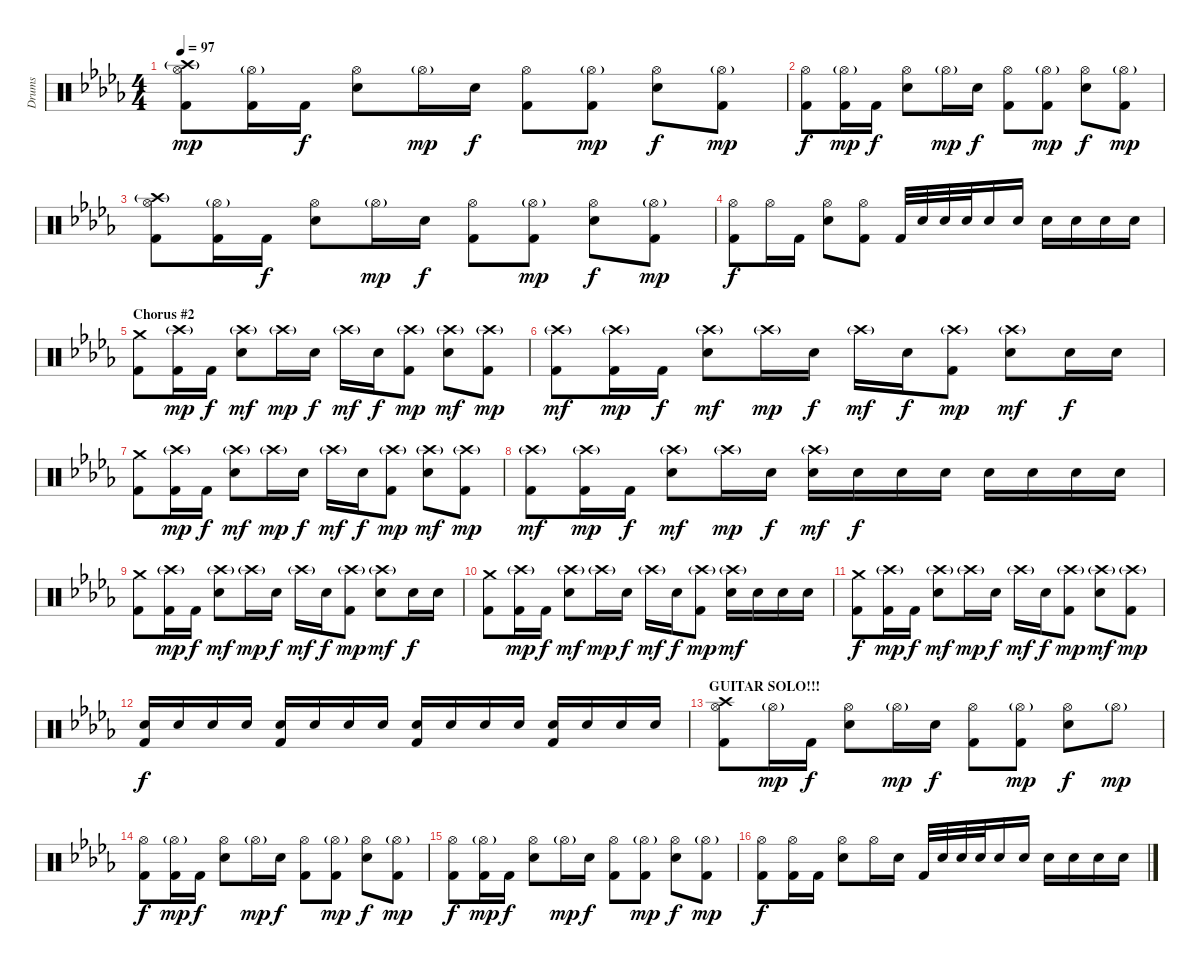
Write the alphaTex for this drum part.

\track ("Drums" "Drums") {instrument percussion}
\staff {score}
\articulation defaults
\ts (4 4)
\tempo 97
\clef neutral
\ks db
("Hi-Hat (open)" "Crash high (hit)"{g} "Kick (hit) 2").8{dy mp} ("Hi-Hat (open)"{g} "Kick (hit) 2").16 "Kick (hit) 2".16{dy f} ("Hi-Hat (open)" "Electric Snare (hit)").8 "Hi-Hat (open)"{g}.16{dy mp} "Electric Snare (hit)".16{dy f} ("Hi-Hat (open)" "Kick (hit) 2").8 ("Hi-Hat (open)"{g} "Kick (hit) 2").8{dy mp} ("Hi-Hat (open)" "Electric Snare (hit)").8{dy f} ("Hi-Hat (open)"{g} "Kick (hit) 2").8{dy mp} |
("Hi-Hat (open)" "Kick (hit) 2").8{dy f} ("Hi-Hat (open)"{g} "Kick (hit) 2").16{dy mp} "Kick (hit) 2".16{dy f} ("Hi-Hat (open)" "Electric Snare (hit)").8 "Hi-Hat (open)"{g}.16{dy mp} "Electric Snare (hit)".16{dy f} ("Hi-Hat (open)" "Kick (hit) 2").8 ("Hi-Hat (open)"{g} "Kick (hit) 2").8{dy mp} ("Hi-Hat (open)" "Electric Snare (hit)").8{dy f} ("Hi-Hat (open)"{g} "Kick (hit) 2").8{dy mp} |
("Hi-Hat (open)" "Crash high (hit)"{g} "Kick (hit) 2").8 ("Hi-Hat (open)"{g} "Kick (hit) 2").16 "Kick (hit) 2".16{dy f} ("Hi-Hat (open)" "Electric Snare (hit)").8 "Hi-Hat (open)"{g}.16{dy mp} "Electric Snare (hit)".16{dy f} ("Hi-Hat (open)" "Kick (hit) 2").8 ("Hi-Hat (open)"{g} "Kick (hit) 2").8{dy mp} ("Hi-Hat (open)" "Electric Snare (hit)").8{dy f} ("Hi-Hat (open)"{g} "Kick (hit) 2").8{dy mp} |
("Hi-Hat (open)" "Kick (hit) 2").8{dy f} "Hi-Hat (open)".16 "Kick (hit) 2".16 ("Hi-Hat (open)" "Electric Snare (hit)").8 ("Hi-Hat (open)" "Kick (hit) 2").8 "Kick (hit) 2".32 "Electric Snare (hit)".32 "Electric Snare (hit)".32 "Electric Snare (hit)".32 "Electric Snare (hit)".16 "Electric Snare (hit)".16 "Electric Snare (hit)".16 "Electric Snare (hit)".16 "Electric Snare (hit)".16 "Electric Snare (hit)".16 |
\section ("" "Chorus #2")
("Crash medium (hit)" "Kick (hit) 2").8 ("Crash high (hit)"{g} "Kick (hit) 2").16{dy mp} "Kick (hit) 2".16{dy f} ("Crash high (hit)"{g} "Electric Snare (hit)").8{dy mf} "Crash high (hit)"{g}.16{dy mp} "Electric Snare (hit)".16{dy f} "Crash high (hit)"{g}.16{dy mf} "Electric Snare (hit)".16{dy f} ("Crash high (hit)"{g} "Kick (hit) 2").8{dy mp} ("Crash high (hit)"{g} "Electric Snare (hit)").8{dy mf} ("Crash high (hit)"{g} "Kick (hit) 2").8{dy mp} |
("Crash high (hit)"{g} "Kick (hit) 2").8{dy mf} ("Crash high (hit)"{g} "Kick (hit) 2").16{dy mp} "Kick (hit) 2".16{dy f} ("Crash high (hit)"{g} "Electric Snare (hit)").8{dy mf} "Crash high (hit)"{g}.16{dy mp} "Electric Snare (hit)".16{dy f} "Crash high (hit)"{g}.16{dy mf} "Electric Snare (hit)".16{dy f} ("Crash high (hit)"{g} "Kick (hit) 2").8{dy mp} ("Crash high (hit)"{g} "Electric Snare (hit)").8{dy mf} "Electric Snare (hit)".16{dy f} "Electric Snare (hit)".16 |
("Crash medium (hit)" "Kick (hit) 2").8 ("Crash high (hit)"{g} "Kick (hit) 2").16{dy mp} "Kick (hit) 2".16{dy f} ("Crash high (hit)"{g} "Electric Snare (hit)").8{dy mf} "Crash high (hit)"{g}.16{dy mp} "Electric Snare (hit)".16{dy f} "Crash high (hit)"{g}.16{dy mf} "Electric Snare (hit)".16{dy f} ("Crash high (hit)"{g} "Kick (hit) 2").8{dy mp} ("Crash high (hit)"{g} "Electric Snare (hit)").8{dy mf} ("Crash high (hit)"{g} "Kick (hit) 2").8{dy mp} |
("Crash high (hit)"{g} "Kick (hit) 2").8{dy mf} ("Crash high (hit)"{g} "Kick (hit) 2").16{dy mp} "Kick (hit) 2".16{dy f} ("Crash high (hit)"{g} "Electric Snare (hit)").8{dy mf} "Crash high (hit)"{g}.16{dy mp} "Electric Snare (hit)".16{dy f} ("Crash high (hit)"{g} "Electric Snare (hit)").16{dy mf} "Electric Snare (hit)".16{dy f} "Electric Snare (hit)".16 "Electric Snare (hit)".16 "Electric Snare (hit)".16 "Electric Snare (hit)".16 "Electric Snare (hit)".16 "Electric Snare (hit)".16 |
("Crash medium (hit)" "Kick (hit) 2").8 ("Crash high (hit)"{g} "Kick (hit) 2").16{dy mp} "Kick (hit) 2".16{dy f} ("Crash high (hit)"{g} "Electric Snare (hit)").8{dy mf} "Crash high (hit)"{g}.16{dy mp} "Electric Snare (hit)".16{dy f} "Crash high (hit)"{g}.16{dy mf} "Electric Snare (hit)".16{dy f} ("Crash high (hit)"{g} "Kick (hit) 2").8{dy mp} ("Crash high (hit)"{g} "Electric Snare (hit)").8{dy mf} "Electric Snare (hit)".16{dy f} "Electric Snare (hit)".16 |
("Crash medium (hit)" "Kick (hit) 2").8 ("Crash high (hit)"{g} "Kick (hit) 2").16{dy mp} "Kick (hit) 2".16{dy f} ("Crash high (hit)"{g} "Electric Snare (hit)").8{dy mf} "Crash high (hit)"{g}.16{dy mp} "Electric Snare (hit)".16{dy f} "Crash high (hit)"{g}.16{dy mf} "Electric Snare (hit)".16{dy f} ("Crash high (hit)"{g} "Kick (hit) 2").8{dy mp} ("Crash high (hit)"{g} "Electric Snare (hit)").16{dy mf} "Electric Snare (hit)".16 "Electric Snare (hit)".16 "Electric Snare (hit)".16 |
("Crash medium (hit)" "Kick (hit) 2").8{dy f} ("Crash high (hit)"{g} "Kick (hit) 2").16{dy mp} "Kick (hit) 2".16{dy f} ("Crash high (hit)"{g} "Electric Snare (hit)").8{dy mf} "Crash high (hit)"{g}.16{dy mp} "Electric Snare (hit)".16{dy f} "Crash high (hit)"{g}.16{dy mf} "Electric Snare (hit)".16{dy f} ("Crash high (hit)"{g} "Kick (hit) 2").8{dy mp} ("Crash high (hit)"{g} "Electric Snare (hit)").8{dy mf} ("Crash high (hit)"{g} "Kick (hit) 2").8{dy mp} |
("Electric Snare (hit)" "Kick (hit) 2").16{dy f} "Electric Snare (hit)".16 "Electric Snare (hit)".16 "Electric Snare (hit)".16 ("Electric Snare (hit)" "Kick (hit) 2").16 "Electric Snare (hit)".16 "Electric Snare (hit)".16 "Electric Snare (hit)".16 ("Electric Snare (hit)" "Kick (hit) 2").16 "Electric Snare (hit)".16 "Electric Snare (hit)".16 "Electric Snare (hit)".16 ("Electric Snare (hit)" "Kick (hit) 2").16 "Electric Snare (hit)".16 "Electric Snare (hit)".16 "Electric Snare (hit)".16 |
\section ("" "GUITAR SOLO!!!")
("Hi-Hat (open)" "Crash high (hit)" "Kick (hit) 2").8 "Hi-Hat (open)"{g}.16{dy mp} "Kick (hit) 2".16{dy f} ("Hi-Hat (open)" "Electric Snare (hit)").8 "Hi-Hat (open)"{g}.16{dy mp} "Electric Snare (hit)".16{dy f} ("Hi-Hat (open)" "Kick (hit) 2").8 ("Hi-Hat (open)"{g} "Kick (hit) 2").8{dy mp} ("Hi-Hat (open)" "Electric Snare (hit)").8{dy f} "Hi-Hat (open)"{g}.8{dy mp} |
("Hi-Hat (open)" "Kick (hit) 2").8{dy f} ("Hi-Hat (open)"{g} "Kick (hit) 2").16{dy mp} "Kick (hit) 2".16{dy f} ("Hi-Hat (open)" "Electric Snare (hit)").8 "Hi-Hat (open)"{g}.16{dy mp} "Electric Snare (hit)".16{dy f} ("Hi-Hat (open)" "Kick (hit) 2").8 ("Hi-Hat (open)"{g} "Kick (hit) 2").8{dy mp} ("Hi-Hat (open)" "Electric Snare (hit)").8{dy f} ("Hi-Hat (open)"{g} "Kick (hit) 2").8{dy mp} |
("Hi-Hat (open)" "Kick (hit) 2").8{dy f} ("Hi-Hat (open)"{g} "Kick (hit) 2").16{dy mp} "Kick (hit) 2".16{dy f} ("Hi-Hat (open)" "Electric Snare (hit)").8 "Hi-Hat (open)"{g}.16{dy mp} "Electric Snare (hit)".16{dy f} ("Hi-Hat (open)" "Kick (hit) 2").8 ("Hi-Hat (open)"{g} "Kick (hit) 2").8{dy mp} ("Hi-Hat (open)" "Electric Snare (hit)").8{dy f} ("Hi-Hat (open)"{g} "Kick (hit) 2").8{dy mp} |
("Hi-Hat (open)" "Kick (hit) 2").8{dy f} ("Hi-Hat (open)" "Kick (hit) 2").16 "Kick (hit) 2".16 ("Hi-Hat (open)" "Electric Snare (hit)").8 "Hi-Hat (open)".16 "Electric Snare (hit)".16 "Kick (hit) 2".32 "Electric Snare (hit)".32 "Electric Snare (hit)".32 "Electric Snare (hit)".32 "Electric Snare (hit)".16 "Electric Snare (hit)".16 "Electric Snare (hit)".16 "Electric Snare (hit)".16 "Electric Snare (hit)".16 "Electric Snare (hit)".16
